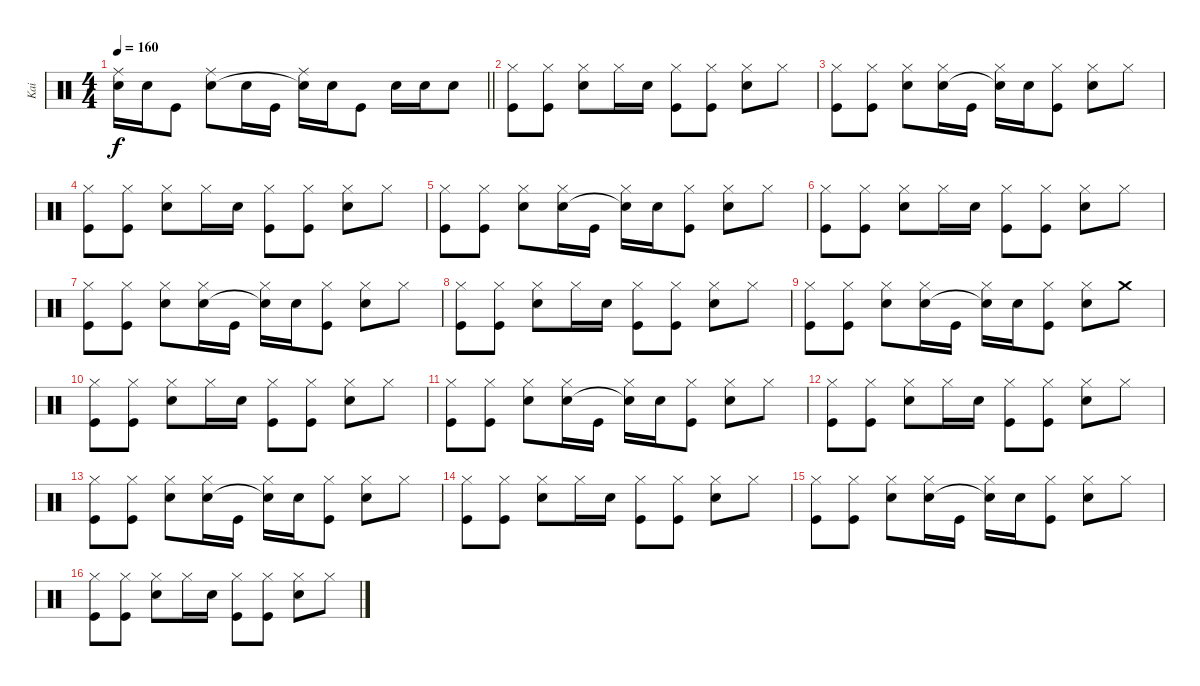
\track ("Kai" "Kai") {instrument percussion}
\staff {score}
\articulation defaults
\ts (4 4)
\tempo 160
\clef neutral
\barLineRight lightlight
\ks c
("Ride (middle)" "Snare (hit)"{t}).16{dy f} "Snare (hit) 2".16 "Kick (hit)".8 ("Ride (middle)" "Snare (hit) 2").8 "Snare (hit) 2".16 "Kick (hit)".16 ("Ride (middle)" "Snare (hit)"{t}).16 "Snare (hit) 2".16 "Kick (hit)".8 "Snare (hit) 2".16 "Snare (hit) 2".16 "Snare (hit) 2".8 |
\section ("" "")
("Hi-Hat (closed)" "Kick (hit)").8 ("Hi-Hat (closed)" "Kick (hit)").8 ("Hi-Hat (closed)" "Snare (hit) 2").8 "Hi-Hat (closed)".16 "Snare (hit) 2".16 ("Hi-Hat (closed)" "Kick (hit)").8 ("Hi-Hat (closed)" "Kick (hit)").8 ("Hi-Hat (closed)" "Snare (hit) 2").8 "Hi-Hat (closed)".8 |
("Hi-Hat (closed)" "Kick (hit)").8 ("Hi-Hat (closed)" "Kick (hit)").8 ("Hi-Hat (closed)" "Snare (hit) 2").8 ("Hi-Hat (closed)" "Snare (hit) 2").16 "Kick (hit)".16 ("Hi-Hat (closed)" "Snare (hit)"{t}).16 "Snare (hit) 2".16 ("Hi-Hat (closed)" "Kick (hit)").8 ("Hi-Hat (closed)" "Snare (hit) 2").8 "Hi-Hat (closed)".8 |
("Hi-Hat (closed)" "Kick (hit)").8 ("Hi-Hat (closed)" "Kick (hit)").8 ("Hi-Hat (closed)" "Snare (hit) 2").8 "Hi-Hat (closed)".16 "Snare (hit) 2".16 ("Hi-Hat (closed)" "Kick (hit)").8 ("Hi-Hat (closed)" "Kick (hit)").8 ("Hi-Hat (closed)" "Snare (hit) 2").8 "Hi-Hat (closed)".8 |
("Hi-Hat (closed)" "Kick (hit)").8 ("Hi-Hat (closed)" "Kick (hit)").8 ("Hi-Hat (closed)" "Snare (hit) 2").8 ("Hi-Hat (closed)" "Snare (hit) 2").16 "Kick (hit)".16 ("Hi-Hat (closed)" "Snare (hit)"{t}).16 "Snare (hit) 2".16 ("Hi-Hat (closed)" "Kick (hit)").8 ("Hi-Hat (closed)" "Snare (hit) 2").8 "Hi-Hat (closed)".8 |
("Hi-Hat (closed)" "Kick (hit)").8 ("Hi-Hat (closed)" "Kick (hit)").8 ("Hi-Hat (closed)" "Snare (hit) 2").8 "Hi-Hat (closed)".16 "Snare (hit) 2".16 ("Hi-Hat (closed)" "Kick (hit)").8 ("Hi-Hat (closed)" "Kick (hit)").8 ("Hi-Hat (closed)" "Snare (hit) 2").8 "Hi-Hat (closed)".8 |
("Hi-Hat (closed)" "Kick (hit)").8 ("Hi-Hat (closed)" "Kick (hit)").8 ("Hi-Hat (closed)" "Snare (hit) 2").8 ("Hi-Hat (closed)" "Snare (hit) 2").16 "Kick (hit)".16 ("Hi-Hat (closed)" "Snare (hit)"{t}).16 "Snare (hit) 2".16 ("Hi-Hat (closed)" "Kick (hit)").8 ("Hi-Hat (closed)" "Snare (hit) 2").8 "Hi-Hat (closed)".8 |
("Hi-Hat (closed)" "Kick (hit)").8 ("Hi-Hat (closed)" "Kick (hit)").8 ("Hi-Hat (closed)" "Snare (hit) 2").8 "Hi-Hat (closed)".16 "Snare (hit) 2".16 ("Hi-Hat (closed)" "Kick (hit)").8 ("Hi-Hat (closed)" "Kick (hit)").8 ("Hi-Hat (closed)" "Snare (hit) 2").8 "Hi-Hat (closed)".8 |
("Hi-Hat (closed)" "Kick (hit)").8 ("Hi-Hat (closed)" "Kick (hit)").8 ("Hi-Hat (closed)" "Snare (hit) 2").8 ("Hi-Hat (closed)" "Snare (hit) 2").16 "Kick (hit)".16 ("Hi-Hat (closed)" "Snare (hit)"{t}).16 "Snare (hit) 2".16 ("Hi-Hat (closed)" "Kick (hit)").8 ("Hi-Hat (closed)" "Snare (hit) 2").8 "Crash medium (hit)".8 |
("Hi-Hat (closed)" "Kick (hit)").8 ("Hi-Hat (closed)" "Kick (hit)").8 ("Hi-Hat (closed)" "Snare (hit) 2").8 "Hi-Hat (closed)".16 "Snare (hit) 2".16 ("Hi-Hat (closed)" "Kick (hit)").8 ("Hi-Hat (closed)" "Kick (hit)").8 ("Hi-Hat (closed)" "Snare (hit) 2").8 "Hi-Hat (closed)".8 |
("Hi-Hat (closed)" "Kick (hit)").8 ("Hi-Hat (closed)" "Kick (hit)").8 ("Hi-Hat (closed)" "Snare (hit) 2").8 ("Hi-Hat (closed)" "Snare (hit) 2").16 "Kick (hit)".16 ("Hi-Hat (closed)" "Snare (hit)"{t}).16 "Snare (hit) 2".16 ("Hi-Hat (closed)" "Kick (hit)").8 ("Hi-Hat (closed)" "Snare (hit) 2").8 "Hi-Hat (closed)".8 |
("Hi-Hat (closed)" "Kick (hit)").8 ("Hi-Hat (closed)" "Kick (hit)").8 ("Hi-Hat (closed)" "Snare (hit) 2").8 "Hi-Hat (closed)".16 "Snare (hit) 2".16 ("Hi-Hat (closed)" "Kick (hit)").8 ("Hi-Hat (closed)" "Kick (hit)").8 ("Hi-Hat (closed)" "Snare (hit) 2").8 "Hi-Hat (closed)".8 |
("Hi-Hat (closed)" "Kick (hit)").8 ("Hi-Hat (closed)" "Kick (hit)").8 ("Hi-Hat (closed)" "Snare (hit) 2").8 ("Hi-Hat (closed)" "Snare (hit) 2").16 "Kick (hit)".16 ("Hi-Hat (closed)" "Snare (hit)"{t}).16 "Snare (hit) 2".16 ("Hi-Hat (closed)" "Kick (hit)").8 ("Hi-Hat (closed)" "Snare (hit) 2").8 "Hi-Hat (closed)".8 |
("Hi-Hat (closed)" "Kick (hit)").8 ("Hi-Hat (closed)" "Kick (hit)").8 ("Hi-Hat (closed)" "Snare (hit) 2").8 "Hi-Hat (closed)".16 "Snare (hit) 2".16 ("Hi-Hat (closed)" "Kick (hit)").8 ("Hi-Hat (closed)" "Kick (hit)").8 ("Hi-Hat (closed)" "Snare (hit) 2").8 "Hi-Hat (closed)".8 |
("Hi-Hat (closed)" "Kick (hit)").8 ("Hi-Hat (closed)" "Kick (hit)").8 ("Hi-Hat (closed)" "Snare (hit) 2").8 ("Hi-Hat (closed)" "Snare (hit) 2").16 "Kick (hit)".16 ("Hi-Hat (closed)" "Snare (hit)"{t}).16 "Snare (hit) 2".16 ("Hi-Hat (closed)" "Kick (hit)").8 ("Hi-Hat (closed)" "Snare (hit) 2").8 "Hi-Hat (closed)".8 |
("Hi-Hat (closed)" "Kick (hit)").8 ("Hi-Hat (closed)" "Kick (hit)").8 ("Hi-Hat (closed)" "Snare (hit) 2").8 "Hi-Hat (closed)".16 "Snare (hit) 2".16 ("Hi-Hat (closed)" "Kick (hit)").8 ("Hi-Hat (closed)" "Kick (hit)").8 ("Hi-Hat (closed)" "Snare (hit) 2").8 "Hi-Hat (closed)".8
